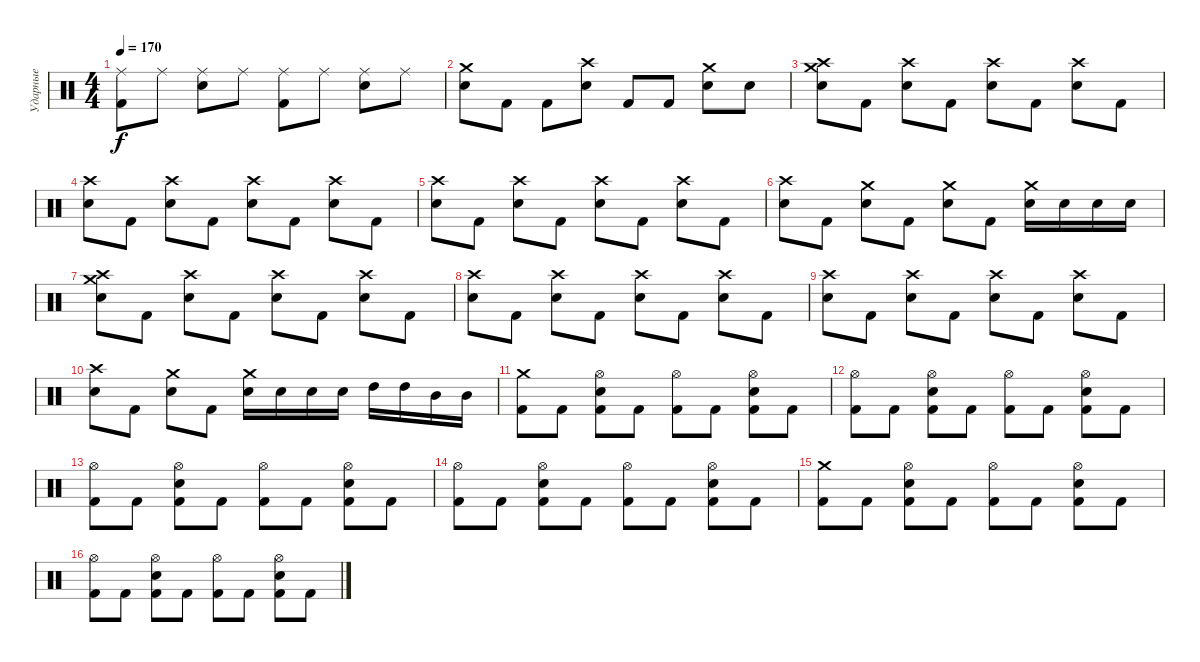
\track ("Ударные" "Ударные") {instrument percussion}
\staff {score}
\articulation defaults
\ts (4 4)
\tempo 170
\clef neutral
\ks c
("Ride (middle)" "Kick (hit) 2").8{dy f} "Ride (middle)".8 ("Ride (middle)" "Electric Snare (hit)").8 "Ride (middle)".8 ("Ride (middle)" "Kick (hit) 2").8 "Ride (middle)".8 ("Ride (middle)" "Electric Snare (hit)").8 "Ride (middle)".8 |
("Crash medium (hit)" "Electric Snare (hit)").8 "Kick (hit) 2".8 "Kick (hit) 2".8 ("Crash high (hit)" "Electric Snare (hit)").8 "Kick (hit) 2".8 "Kick (hit) 2".8 ("Crash medium (hit)" "Electric Snare (hit)").8 "Electric Snare (hit)".8 |
("Crash medium (hit)" "Crash high (hit)" "Electric Snare (hit)").8 "Kick (hit) 2".8 ("Crash high (hit)" "Electric Snare (hit)").8 "Kick (hit) 2".8 ("Crash high (hit)" "Electric Snare (hit)").8 "Kick (hit) 2".8 ("Crash high (hit)" "Electric Snare (hit)").8 "Kick (hit) 2".8 |
("Crash high (hit)" "Electric Snare (hit)").8 "Kick (hit) 2".8 ("Crash high (hit)" "Electric Snare (hit)").8 "Kick (hit) 2".8 ("Crash high (hit)" "Electric Snare (hit)").8 "Kick (hit) 2".8 ("Crash high (hit)" "Electric Snare (hit)").8 "Kick (hit) 2".8 |
("Crash high (hit)" "Electric Snare (hit)").8 "Kick (hit) 2".8 ("Crash high (hit)" "Electric Snare (hit)").8 "Kick (hit) 2".8 ("Crash high (hit)" "Electric Snare (hit)").8 "Kick (hit) 2".8 ("Crash high (hit)" "Electric Snare (hit)").8 "Kick (hit) 2".8 |
("Crash high (hit)" "Electric Snare (hit)").8 "Kick (hit) 2".8 ("Crash medium (hit)" "Electric Snare (hit)").8 "Kick (hit) 2".8 ("Crash medium (hit)" "Electric Snare (hit)").8 "Kick (hit) 2".8 ("Crash medium (hit)" "Electric Snare (hit)").16 "Electric Snare (hit)".16 "Electric Snare (hit)".16 "Electric Snare (hit)".16 |
("Crash medium (hit)" "Crash high (hit)" "Electric Snare (hit)").8 "Kick (hit) 2".8 ("Crash high (hit)" "Electric Snare (hit)").8 "Kick (hit) 2".8 ("Crash high (hit)" "Electric Snare (hit)").8 "Kick (hit) 2".8 ("Crash high (hit)" "Electric Snare (hit)").8 "Kick (hit) 2".8 |
("Crash high (hit)" "Electric Snare (hit)").8 "Kick (hit) 2".8 ("Crash high (hit)" "Electric Snare (hit)").8 "Kick (hit) 2".8 ("Crash high (hit)" "Electric Snare (hit)").8 "Kick (hit) 2".8 ("Crash high (hit)" "Electric Snare (hit)").8 "Kick (hit) 2".8 |
("Crash high (hit)" "Electric Snare (hit)").8 "Kick (hit) 2".8 ("Crash high (hit)" "Electric Snare (hit)").8 "Kick (hit) 2".8 ("Crash high (hit)" "Electric Snare (hit)").8 "Kick (hit) 2".8 ("Crash high (hit)" "Electric Snare (hit)").8 "Kick (hit) 2".8 |
("Crash high (hit)" "Electric Snare (hit)").8 "Kick (hit) 2".8 ("Crash medium (hit)" "Electric Snare (hit)").8 "Kick (hit) 2".8 ("Crash medium (hit)" "Electric Snare (hit)").16 "Electric Snare (hit)".16 "Electric Snare (hit)".16 "Electric Snare (hit)".16 "High Tom (hit)".16 "High Tom (hit)".16 "Mid Tom (hit)".16 "Mid Tom (hit)".16 |
("Crash medium (hit)" "Kick (hit) 2").8 "Kick (hit) 2".8 ("Hi-Hat (open)" "Electric Snare (hit)" "Kick (hit) 2").8 "Kick (hit) 2".8 ("Hi-Hat (open)" "Kick (hit) 2").8 "Kick (hit) 2".8 ("Hi-Hat (open)" "Electric Snare (hit)" "Kick (hit) 2").8 "Kick (hit) 2".8 |
("Hi-Hat (open)" "Kick (hit) 2").8 "Kick (hit) 2".8 ("Hi-Hat (open)" "Electric Snare (hit)" "Kick (hit) 2").8 "Kick (hit) 2".8 ("Hi-Hat (open)" "Kick (hit) 2").8 "Kick (hit) 2".8 ("Hi-Hat (open)" "Electric Snare (hit)" "Kick (hit) 2").8 "Kick (hit) 2".8 |
("Hi-Hat (open)" "Kick (hit) 2").8 "Kick (hit) 2".8 ("Hi-Hat (open)" "Electric Snare (hit)" "Kick (hit) 2").8 "Kick (hit) 2".8 ("Hi-Hat (open)" "Kick (hit) 2").8 "Kick (hit) 2".8 ("Hi-Hat (open)" "Electric Snare (hit)" "Kick (hit) 2").8 "Kick (hit) 2".8 |
("Hi-Hat (open)" "Kick (hit) 2").8 "Kick (hit) 2".8 ("Hi-Hat (open)" "Electric Snare (hit)" "Kick (hit) 2").8 "Kick (hit) 2".8 ("Hi-Hat (open)" "Kick (hit) 2").8 "Kick (hit) 2".8 ("Hi-Hat (open)" "Electric Snare (hit)" "Kick (hit) 2").8 "Kick (hit) 2".8 |
("Crash medium (hit)" "Kick (hit) 2").8 "Kick (hit) 2".8 ("Hi-Hat (open)" "Electric Snare (hit)" "Kick (hit) 2").8 "Kick (hit) 2".8 ("Hi-Hat (open)" "Kick (hit) 2").8 "Kick (hit) 2".8 ("Hi-Hat (open)" "Electric Snare (hit)" "Kick (hit) 2").8 "Kick (hit) 2".8 |
("Hi-Hat (open)" "Kick (hit) 2").8 "Kick (hit) 2".8 ("Hi-Hat (open)" "Electric Snare (hit)" "Kick (hit) 2").8 "Kick (hit) 2".8 ("Hi-Hat (open)" "Kick (hit) 2").8 "Kick (hit) 2".8 ("Hi-Hat (open)" "Electric Snare (hit)" "Kick (hit) 2").8 "Kick (hit) 2".8
